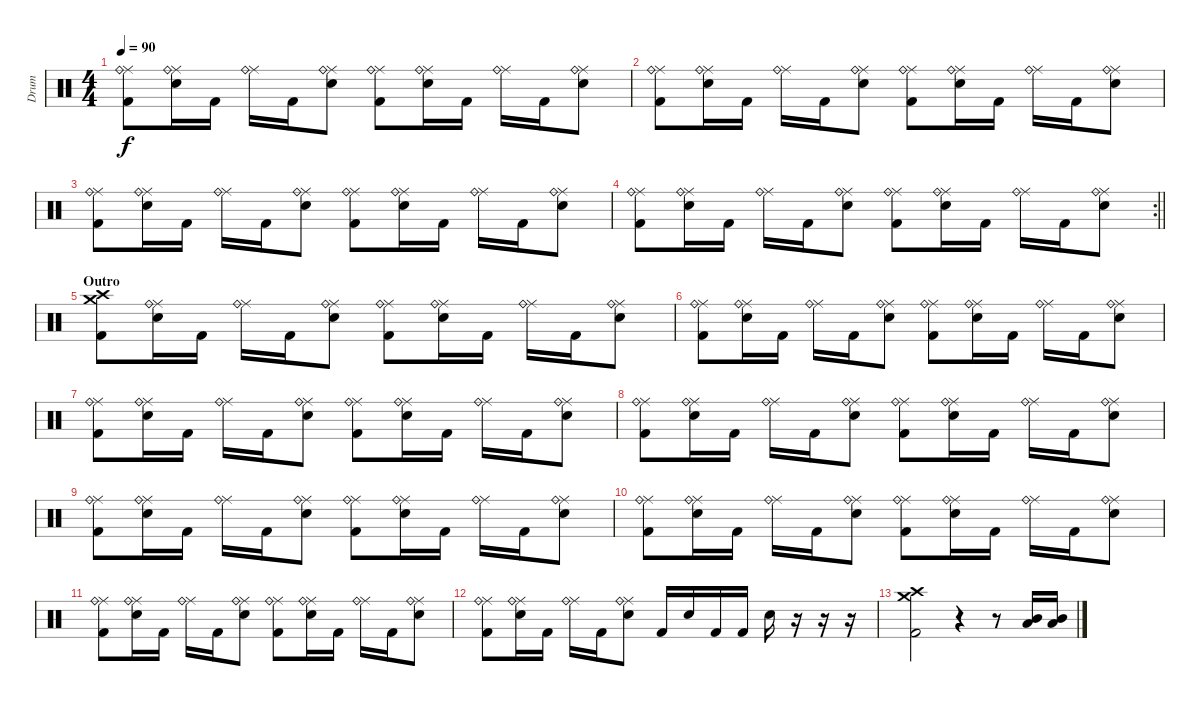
\track ("Drum" "Drum") {instrument percussion}
\staff {score}
\articulation defaults
\ts (4 4)
\tempo 90
\clef neutral
\ks c
("Ride (middle)" "Ride (bell)" "Kick (hit) 2").8{dy f} ("Ride (middle)" "Ride (bell)" "Snare (hit) 2").16 "Kick (hit) 2".16 ("Ride (middle)" "Ride (bell)").16 "Kick (hit) 2".16 ("Ride (middle)" "Ride (bell)" "Snare (hit) 2").8 ("Ride (middle)" "Ride (bell)" "Kick (hit) 2").8 ("Ride (middle)" "Ride (bell)" "Snare (hit) 2").16 "Kick (hit) 2".16 ("Ride (middle)" "Ride (bell)").16 "Kick (hit) 2".16 ("Ride (middle)" "Ride (bell)" "Snare (hit) 2").8 |
("Ride (middle)" "Ride (bell)" "Kick (hit) 2").8 ("Ride (middle)" "Ride (bell)" "Snare (hit) 2").16 "Kick (hit) 2".16 ("Ride (middle)" "Ride (bell)").16 "Kick (hit) 2".16 ("Ride (middle)" "Ride (bell)" "Snare (hit) 2").8 ("Ride (middle)" "Ride (bell)" "Kick (hit) 2").8 ("Ride (middle)" "Ride (bell)" "Snare (hit) 2").16 "Kick (hit) 2".16 ("Ride (middle)" "Ride (bell)").16 "Kick (hit) 2".16 ("Ride (middle)" "Ride (bell)" "Snare (hit) 2").8 |
("Ride (middle)" "Ride (bell)" "Kick (hit) 2").8 ("Ride (middle)" "Ride (bell)" "Snare (hit) 2").16 "Kick (hit) 2".16 ("Ride (middle)" "Ride (bell)").16 "Kick (hit) 2".16 ("Ride (middle)" "Ride (bell)" "Snare (hit) 2").8 ("Ride (middle)" "Ride (bell)" "Kick (hit) 2").8 ("Ride (middle)" "Ride (bell)" "Snare (hit) 2").16 "Kick (hit) 2".16 ("Ride (middle)" "Ride (bell)").16 "Kick (hit) 2".16 ("Ride (middle)" "Ride (bell)" "Snare (hit) 2").8 |
\rc 2
\barLineRight lightlight
("Ride (middle)" "Ride (bell)" "Kick (hit) 2").8 ("Ride (middle)" "Ride (bell)" "Snare (hit) 2").16 "Kick (hit) 2".16 ("Ride (middle)" "Ride (bell)").16 "Kick (hit) 2".16 ("Ride (middle)" "Ride (bell)" "Snare (hit) 2").8 ("Ride (middle)" "Ride (bell)" "Kick (hit) 2").8 ("Ride (middle)" "Ride (bell)" "Snare (hit) 2").16 "Kick (hit) 2".16 ("Ride (middle)" "Ride (bell)").16 "Kick (hit) 2".16 ("Ride (middle)" "Ride (bell)" "Snare (hit) 2").8 |
\section ("" "Outro")
("Crash medium (hit)" "Crash high (hit)" "Kick (hit) 2").8 ("Ride (middle)" "Ride (bell)" "Snare (hit) 2").16 "Kick (hit) 2".16 ("Ride (middle)" "Ride (bell)").16 "Kick (hit) 2".16 ("Ride (middle)" "Ride (bell)" "Snare (hit) 2").8 ("Ride (middle)" "Ride (bell)" "Kick (hit) 2").8 ("Ride (middle)" "Ride (bell)" "Snare (hit) 2").16 "Kick (hit) 2".16 ("Ride (middle)" "Ride (bell)").16 "Kick (hit) 2".16 ("Ride (middle)" "Ride (bell)" "Snare (hit) 2").8 |
("Ride (middle)" "Ride (bell)" "Kick (hit) 2").8 ("Ride (middle)" "Ride (bell)" "Snare (hit) 2").16 "Kick (hit) 2".16 ("Ride (middle)" "Ride (bell)").16 "Kick (hit) 2".16 ("Ride (middle)" "Ride (bell)" "Snare (hit) 2").8 ("Ride (middle)" "Ride (bell)" "Kick (hit) 2").8 ("Ride (middle)" "Ride (bell)" "Snare (hit) 2").16 "Kick (hit) 2".16 ("Ride (middle)" "Ride (bell)").16 "Kick (hit) 2".16 ("Ride (middle)" "Ride (bell)" "Snare (hit) 2").8 |
("Ride (middle)" "Ride (bell)" "Kick (hit) 2").8 ("Ride (middle)" "Ride (bell)" "Snare (hit) 2").16 "Kick (hit) 2".16 ("Ride (middle)" "Ride (bell)").16 "Kick (hit) 2".16 ("Ride (middle)" "Ride (bell)" "Snare (hit) 2").8 ("Ride (middle)" "Ride (bell)" "Kick (hit) 2").8 ("Ride (middle)" "Ride (bell)" "Snare (hit) 2").16 "Kick (hit) 2".16 ("Ride (middle)" "Ride (bell)").16 "Kick (hit) 2".16 ("Ride (middle)" "Ride (bell)" "Snare (hit) 2").8 |
("Ride (middle)" "Ride (bell)" "Kick (hit) 2").8 ("Ride (middle)" "Ride (bell)" "Snare (hit) 2").16 "Kick (hit) 2".16 ("Ride (middle)" "Ride (bell)").16 "Kick (hit) 2".16 ("Ride (middle)" "Ride (bell)" "Snare (hit) 2").8 ("Ride (middle)" "Ride (bell)" "Kick (hit) 2").8 ("Ride (middle)" "Ride (bell)" "Snare (hit) 2").16 "Kick (hit) 2".16 ("Ride (middle)" "Ride (bell)").16 "Kick (hit) 2".16 ("Ride (middle)" "Ride (bell)" "Snare (hit) 2").8 |
("Ride (middle)" "Ride (bell)" "Kick (hit) 2").8 ("Ride (middle)" "Ride (bell)" "Snare (hit) 2").16 "Kick (hit) 2".16 ("Ride (middle)" "Ride (bell)").16 "Kick (hit) 2".16 ("Ride (middle)" "Ride (bell)" "Snare (hit) 2").8 ("Ride (middle)" "Ride (bell)" "Kick (hit) 2").8 ("Ride (middle)" "Ride (bell)" "Snare (hit) 2").16 "Kick (hit) 2".16 ("Ride (middle)" "Ride (bell)").16 "Kick (hit) 2".16 ("Ride (middle)" "Ride (bell)" "Snare (hit) 2").8 |
("Ride (middle)" "Ride (bell)" "Kick (hit) 2").8 ("Ride (middle)" "Ride (bell)" "Snare (hit) 2").16 "Kick (hit) 2".16 ("Ride (middle)" "Ride (bell)").16 "Kick (hit) 2".16 ("Ride (middle)" "Ride (bell)" "Snare (hit) 2").8 ("Ride (middle)" "Ride (bell)" "Kick (hit) 2").8 ("Ride (middle)" "Ride (bell)" "Snare (hit) 2").16 "Kick (hit) 2".16 ("Ride (middle)" "Ride (bell)").16 "Kick (hit) 2".16 ("Ride (middle)" "Ride (bell)" "Snare (hit) 2").8 |
("Ride (middle)" "Ride (bell)" "Kick (hit) 2").8 ("Ride (middle)" "Ride (bell)" "Snare (hit) 2").16 "Kick (hit) 2".16 ("Ride (middle)" "Ride (bell)").16 "Kick (hit) 2".16 ("Ride (middle)" "Ride (bell)" "Snare (hit) 2").8 ("Ride (middle)" "Ride (bell)" "Kick (hit) 2").8 ("Ride (middle)" "Ride (bell)" "Snare (hit) 2").16 "Kick (hit) 2".16 ("Ride (middle)" "Ride (bell)").16 "Kick (hit) 2".16 ("Ride (middle)" "Ride (bell)" "Snare (hit) 2").8 |
("Ride (middle)" "Ride (bell)" "Kick (hit) 2").8 ("Ride (middle)" "Ride (bell)" "Snare (hit) 2").16 "Kick (hit) 2".16 ("Ride (middle)" "Ride (bell)").16 "Kick (hit) 2".16 ("Ride (middle)" "Ride (bell)" "Snare (hit) 2").8 "Kick (hit) 2".16 "Snare (hit) 2".16 "Kick (hit) 2".16 "Kick (hit) 2".16 "Snare (hit) 2".16 r.16 r.16 r.16 |
("Crash medium (hit)" "Crash high (hit)" "Kick (hit) 2").2 r.4 r.8 ("Mid Tom (hit)" "Low Tom (hit)").16 ("Mid Tom (hit)" "Low Tom (hit)").16
